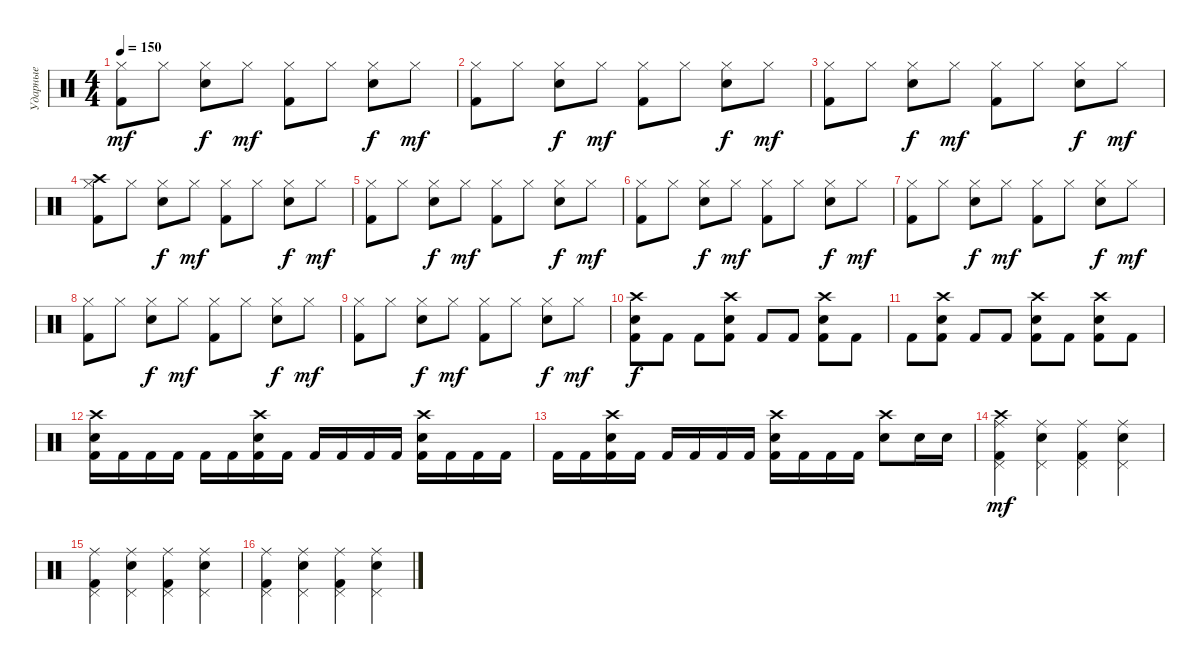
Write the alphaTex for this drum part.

\track ("Ударные" "Ударные") {instrument percussion}
\staff {score}
\articulation defaults
\ts (4 4)
\tempo 150
\clef neutral
\ks c
("Kick (hit) 2" "Hi-Hat (closed)").8{dy mf} "Hi-Hat (closed)".8 ("Snare (hit) 2" "Hi-Hat (closed)").8{dy f} "Hi-Hat (closed)".8{dy mf} ("Kick (hit) 2" "Hi-Hat (closed)").8 "Hi-Hat (closed)".8 ("Snare (hit) 2" "Hi-Hat (closed)").8{dy f} "Hi-Hat (closed)".8{dy mf} |
("Kick (hit) 2" "Hi-Hat (closed)").8 "Hi-Hat (closed)".8 ("Snare (hit) 2" "Hi-Hat (closed)").8{dy f} "Hi-Hat (closed)".8{dy mf} ("Kick (hit) 2" "Hi-Hat (closed)").8 "Hi-Hat (closed)".8 ("Snare (hit) 2" "Hi-Hat (closed)").8{dy f} "Hi-Hat (closed)".8{dy mf} |
("Kick (hit) 2" "Hi-Hat (closed)").8 "Hi-Hat (closed)".8 ("Snare (hit) 2" "Hi-Hat (closed)").8{dy f} "Hi-Hat (closed)".8{dy mf} ("Kick (hit) 2" "Hi-Hat (closed)").8 "Hi-Hat (closed)".8 ("Snare (hit) 2" "Hi-Hat (closed)").8{dy f} "Hi-Hat (closed)".8{dy mf} |
("Kick (hit) 2" "Crash high (hit)" "Hi-Hat (closed)").8 "Hi-Hat (closed)".8 ("Snare (hit) 2" "Hi-Hat (closed)").8{dy f} "Hi-Hat (closed)".8{dy mf} ("Kick (hit) 2" "Hi-Hat (closed)").8 "Hi-Hat (closed)".8 ("Snare (hit) 2" "Hi-Hat (closed)").8{dy f} "Hi-Hat (closed)".8{dy mf} |
("Kick (hit) 2" "Hi-Hat (closed)").8 "Hi-Hat (closed)".8 ("Snare (hit) 2" "Hi-Hat (closed)").8{dy f} "Hi-Hat (closed)".8{dy mf} ("Kick (hit) 2" "Hi-Hat (closed)").8 "Hi-Hat (closed)".8 ("Snare (hit) 2" "Hi-Hat (closed)").8{dy f} "Hi-Hat (closed)".8{dy mf} |
("Kick (hit) 2" "Hi-Hat (closed)").8 "Hi-Hat (closed)".8 ("Snare (hit) 2" "Hi-Hat (closed)").8{dy f} "Hi-Hat (closed)".8{dy mf} ("Kick (hit) 2" "Hi-Hat (closed)").8 "Hi-Hat (closed)".8 ("Snare (hit) 2" "Hi-Hat (closed)").8{dy f} "Hi-Hat (closed)".8{dy mf} |
("Kick (hit) 2" "Hi-Hat (closed)").8 "Hi-Hat (closed)".8 ("Snare (hit) 2" "Hi-Hat (closed)").8{dy f} "Hi-Hat (closed)".8{dy mf} ("Kick (hit) 2" "Hi-Hat (closed)").8 "Hi-Hat (closed)".8 ("Snare (hit) 2" "Hi-Hat (closed)").8{dy f} "Hi-Hat (closed)".8{dy mf} |
("Kick (hit) 2" "Hi-Hat (closed)").8 "Hi-Hat (closed)".8 ("Snare (hit) 2" "Hi-Hat (closed)").8{dy f} "Hi-Hat (closed)".8{dy mf} ("Kick (hit) 2" "Hi-Hat (closed)").8 "Hi-Hat (closed)".8 ("Snare (hit) 2" "Hi-Hat (closed)").8{dy f} "Hi-Hat (closed)".8{dy mf} |
("Kick (hit) 2" "Hi-Hat (closed)").8 "Hi-Hat (closed)".8 ("Snare (hit) 2" "Hi-Hat (closed)").8{dy f} "Hi-Hat (closed)".8{dy mf} ("Kick (hit) 2" "Hi-Hat (closed)").8 "Hi-Hat (closed)".8 ("Snare (hit) 2" "Hi-Hat (closed)").8{dy f} "Hi-Hat (closed)".8{dy mf} |
("Kick (hit) 2" "Snare (hit) 2" "Crash high (hit)").8{dy f} "Kick (hit) 2".8 "Kick (hit) 2".8 ("Kick (hit) 2" "Snare (hit) 2" "Crash high (hit)").8 "Kick (hit) 2".8 "Kick (hit) 2".8 ("Kick (hit) 2" "Snare (hit) 2" "Crash high (hit)").8 "Kick (hit) 2".8 |
"Kick (hit) 2".8 ("Kick (hit) 2" "Snare (hit) 2" "Crash high (hit)").8 "Kick (hit) 2".8 "Kick (hit) 2".8 ("Kick (hit) 2" "Snare (hit) 2" "Crash high (hit)").8 "Kick (hit) 2".8 ("Kick (hit) 2" "Snare (hit) 2" "Crash high (hit)").8 "Kick (hit) 2".8 |
("Kick (hit) 2" "Snare (hit) 2" "Crash high (hit)").16 "Kick (hit) 2".16 "Kick (hit) 2".16 "Kick (hit) 2".16 "Kick (hit) 2".16 "Kick (hit) 2".16 ("Kick (hit) 2" "Snare (hit) 2" "Crash high (hit)").16 "Kick (hit) 2".16 "Kick (hit) 2".16 "Kick (hit) 2".16 "Kick (hit) 2".16 "Kick (hit) 2".16 ("Kick (hit) 2" "Snare (hit) 2" "Crash high (hit)").16 "Kick (hit) 2".16 "Kick (hit) 2".16 "Kick (hit) 2".16 |
"Kick (hit) 2".16 "Kick (hit) 2".16 ("Kick (hit) 2" "Snare (hit) 2" "Crash high (hit)").16 "Kick (hit) 2".16 "Kick (hit) 2".16 "Kick (hit) 2".16 "Kick (hit) 2".16 "Kick (hit) 2".16 ("Kick (hit) 2" "Snare (hit) 2" "Crash high (hit)").16 "Kick (hit) 2".16 "Kick (hit) 2".16 "Kick (hit) 2".16 ("Snare (hit) 2" "Crash high (hit)").8 "Snare (hit) 2".16 "Snare (hit) 2".16 |
("Kick (hit) 2" "Crash high (hit)" "Pedal Hi-Hat (hit)" "Ride (middle)").4{dy mf} ("Snare (hit) 2" "Pedal Hi-Hat (hit)" "Ride (middle)").4 ("Kick (hit) 2" "Pedal Hi-Hat (hit)" "Ride (middle)").4 ("Snare (hit) 2" "Pedal Hi-Hat (hit)" "Ride (middle)").4 |
("Kick (hit) 2" "Pedal Hi-Hat (hit)" "Ride (middle)").4 ("Snare (hit) 2" "Pedal Hi-Hat (hit)" "Ride (middle)").4 ("Kick (hit) 2" "Pedal Hi-Hat (hit)" "Ride (middle)").4 ("Snare (hit) 2" "Pedal Hi-Hat (hit)" "Ride (middle)").4 |
("Kick (hit) 2" "Pedal Hi-Hat (hit)" "Ride (middle)").4 ("Snare (hit) 2" "Pedal Hi-Hat (hit)" "Ride (middle)").4 ("Kick (hit) 2" "Pedal Hi-Hat (hit)" "Ride (middle)").4 ("Snare (hit) 2" "Pedal Hi-Hat (hit)" "Ride (middle)").4
